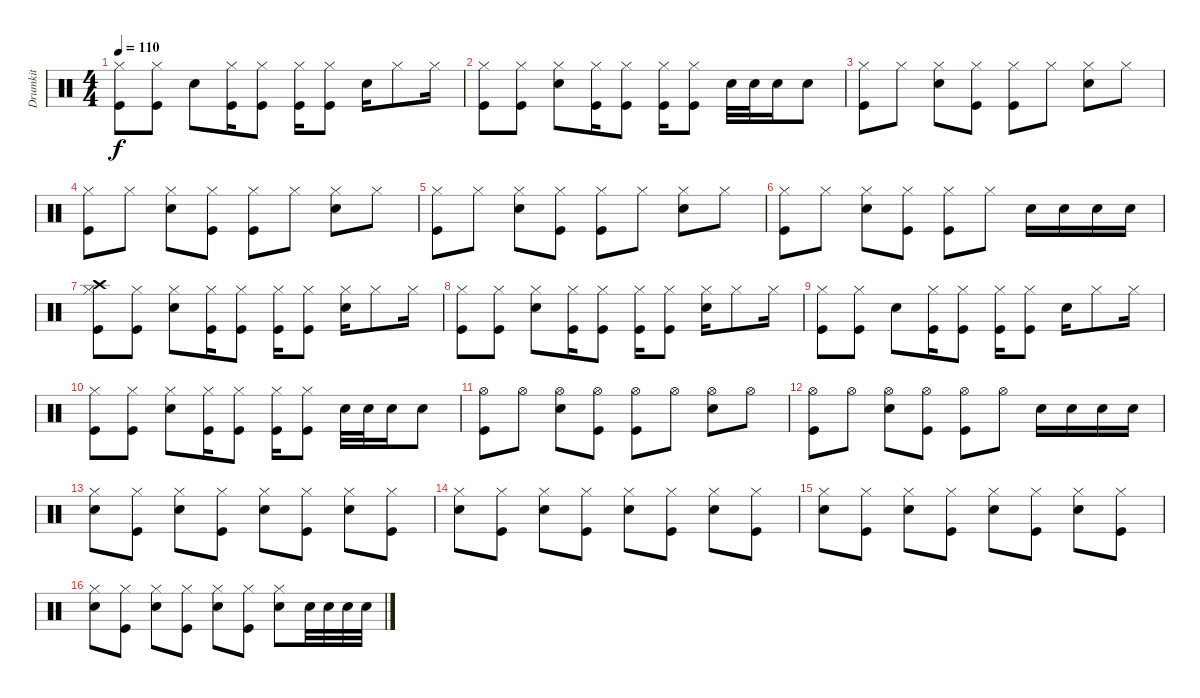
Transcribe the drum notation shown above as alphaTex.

\track ("Drumkit" "Drumkit") {instrument percussion}
\staff {score}
\articulation defaults
\ts (4 4)
\tempo 110
\clef neutral
\ks c
("Hi-Hat (closed)" "Kick (hit)").8{dy f} ("Hi-Hat (closed)" "Kick (hit)").8 "Snare (hit) 2".8 ("Hi-Hat (closed)" "Kick (hit)").16 ("Hi-Hat (closed)" "Kick (hit)").8 ("Hi-Hat (closed)" "Kick (hit)").16 ("Hi-Hat (closed)" "Kick (hit)").8 "Snare (hit) 2".16 "Hi-Hat (closed)".8 "Hi-Hat (closed)".16 |
("Hi-Hat (closed)" "Kick (hit)").8 ("Hi-Hat (closed)" "Kick (hit)").8 ("Hi-Hat (closed)" "Snare (hit) 2").8 ("Hi-Hat (closed)" "Kick (hit)").16 ("Hi-Hat (closed)" "Kick (hit)").8 ("Hi-Hat (closed)" "Kick (hit)").16 ("Hi-Hat (closed)" "Kick (hit)").8 "Snare (hit) 2".32 "Snare (hit) 2".32 "Snare (hit) 2".16 "Snare (hit) 2".8 |
("Hi-Hat (closed)" "Kick (hit)").8 "Hi-Hat (closed)".8 ("Hi-Hat (closed)" "Snare (hit) 2").8 ("Hi-Hat (closed)" "Kick (hit)").8 ("Hi-Hat (closed)" "Kick (hit)").8 "Hi-Hat (closed)".8 ("Hi-Hat (closed)" "Snare (hit) 2").8 "Hi-Hat (closed)".8 |
("Hi-Hat (closed)" "Kick (hit)").8 "Hi-Hat (closed)".8 ("Hi-Hat (closed)" "Snare (hit) 2").8 ("Hi-Hat (closed)" "Kick (hit)").8 ("Hi-Hat (closed)" "Kick (hit)").8 "Hi-Hat (closed)".8 ("Hi-Hat (closed)" "Snare (hit) 2").8 "Hi-Hat (closed)".8 |
("Hi-Hat (closed)" "Kick (hit)").8 "Hi-Hat (closed)".8 ("Hi-Hat (closed)" "Snare (hit) 2").8 ("Hi-Hat (closed)" "Kick (hit)").8 ("Hi-Hat (closed)" "Kick (hit)").8 "Hi-Hat (closed)".8 ("Hi-Hat (closed)" "Snare (hit) 2").8 "Hi-Hat (closed)".8 |
("Hi-Hat (closed)" "Kick (hit)").8 "Hi-Hat (closed)".8 ("Hi-Hat (closed)" "Snare (hit) 2").8 ("Hi-Hat (closed)" "Kick (hit)").8 ("Hi-Hat (closed)" "Kick (hit)").8 "Hi-Hat (closed)".8 "Snare (hit) 2".16 "Snare (hit) 2".16 "Snare (hit) 2".16 "Snare (hit) 2".16 |
("Crash high (hit)" "Hi-Hat (closed)" "Kick (hit)").8 ("Hi-Hat (closed)" "Kick (hit)").8 ("Hi-Hat (closed)" "Snare (hit) 2").8 ("Hi-Hat (closed)" "Kick (hit)").16 ("Hi-Hat (closed)" "Kick (hit)").8 ("Hi-Hat (closed)" "Kick (hit)").16 ("Hi-Hat (closed)" "Kick (hit)").8 ("Hi-Hat (closed)" "Snare (hit) 2").16 "Hi-Hat (closed)".8 "Hi-Hat (closed)".16 |
("Hi-Hat (closed)" "Kick (hit)").8 ("Hi-Hat (closed)" "Kick (hit)").8 ("Hi-Hat (closed)" "Snare (hit) 2").8 ("Hi-Hat (closed)" "Kick (hit)").16 ("Hi-Hat (closed)" "Kick (hit)").8 ("Hi-Hat (closed)" "Kick (hit)").16 ("Hi-Hat (closed)" "Kick (hit)").8 ("Hi-Hat (closed)" "Snare (hit) 2").16 "Hi-Hat (closed)".8 "Hi-Hat (closed)".16 |
("Hi-Hat (closed)" "Kick (hit)").8 ("Hi-Hat (closed)" "Kick (hit)").8 "Snare (hit) 2".8 ("Hi-Hat (closed)" "Kick (hit)").16 ("Hi-Hat (closed)" "Kick (hit)").8 ("Hi-Hat (closed)" "Kick (hit)").16 ("Hi-Hat (closed)" "Kick (hit)").8 "Snare (hit) 2".16 "Hi-Hat (closed)".8 "Hi-Hat (closed)".16 |
("Hi-Hat (closed)" "Kick (hit)").8 ("Hi-Hat (closed)" "Kick (hit)").8 ("Hi-Hat (closed)" "Snare (hit) 2").8 ("Hi-Hat (closed)" "Kick (hit)").16 ("Hi-Hat (closed)" "Kick (hit)").8 ("Hi-Hat (closed)" "Kick (hit)").16 ("Hi-Hat (closed)" "Kick (hit)").8 "Snare (hit) 2".32 "Snare (hit) 2".32 "Snare (hit) 2".16 "Snare (hit) 2".8 |
("Hi-Hat (open)" "Kick (hit)").8 "Hi-Hat (open)".8 ("Hi-Hat (open)" "Snare (hit) 2").8 ("Hi-Hat (open)" "Kick (hit)").8 ("Hi-Hat (open)" "Kick (hit)").8 "Hi-Hat (open)".8 ("Hi-Hat (open)" "Snare (hit) 2").8 "Hi-Hat (open)".8 |
("Hi-Hat (open)" "Kick (hit)").8 "Hi-Hat (open)".8 ("Hi-Hat (open)" "Snare (hit) 2").8 ("Hi-Hat (open)" "Kick (hit)").8 ("Hi-Hat (open)" "Kick (hit)").8 "Hi-Hat (open)".8 "Snare (hit) 2".16 "Snare (hit) 2".16 "Snare (hit) 2".16 "Snare (hit) 2".16 |
("Hi-Hat (closed)" "Snare (hit) 2").8 ("Hi-Hat (closed)" "Kick (hit)").8 ("Hi-Hat (closed)" "Snare (hit) 2").8 ("Hi-Hat (closed)" "Kick (hit)").8 ("Hi-Hat (closed)" "Snare (hit) 2").8 ("Hi-Hat (closed)" "Kick (hit)").8 ("Hi-Hat (closed)" "Snare (hit) 2").8 ("Hi-Hat (closed)" "Kick (hit)").8 |
("Hi-Hat (closed)" "Snare (hit) 2").8 ("Hi-Hat (closed)" "Kick (hit)").8 ("Hi-Hat (closed)" "Snare (hit) 2").8 ("Hi-Hat (closed)" "Kick (hit)").8 ("Hi-Hat (closed)" "Snare (hit) 2").8 ("Hi-Hat (closed)" "Kick (hit)").8 ("Hi-Hat (closed)" "Snare (hit) 2").8 ("Hi-Hat (closed)" "Kick (hit)").8 |
("Hi-Hat (closed)" "Snare (hit) 2").8 ("Hi-Hat (closed)" "Kick (hit)").8 ("Hi-Hat (closed)" "Snare (hit) 2").8 ("Hi-Hat (closed)" "Kick (hit)").8 ("Hi-Hat (closed)" "Snare (hit) 2").8 ("Hi-Hat (closed)" "Kick (hit)").8 ("Hi-Hat (closed)" "Snare (hit) 2").8 ("Hi-Hat (closed)" "Kick (hit)").8 |
("Hi-Hat (closed)" "Snare (hit) 2").8 ("Hi-Hat (closed)" "Kick (hit)").8 ("Hi-Hat (closed)" "Snare (hit) 2").8 ("Hi-Hat (closed)" "Kick (hit)").8 ("Hi-Hat (closed)" "Snare (hit) 2").8 ("Hi-Hat (closed)" "Kick (hit)").8 ("Hi-Hat (closed)" "Snare (hit) 2").8 "Snare (hit) 2".32 "Snare (hit) 2".32 "Snare (hit) 2".32 "Snare (hit) 2".32
